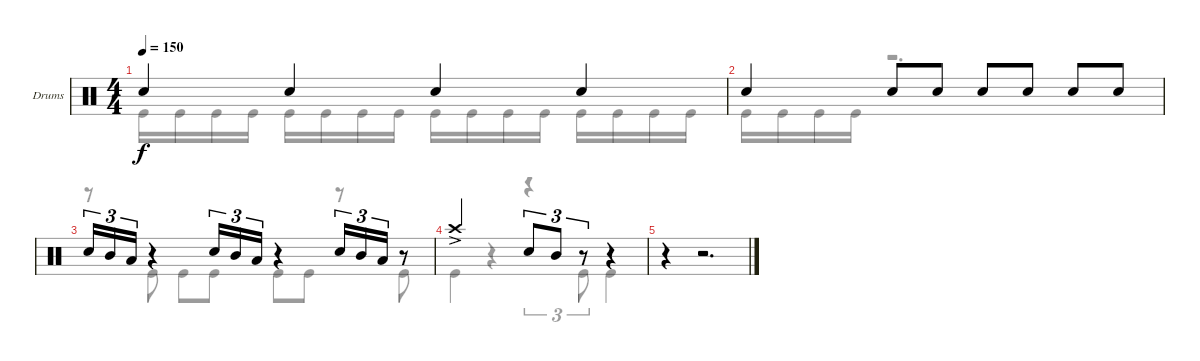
\bracketExtendMode groupsimilarinstruments
\firstSystemTrackNameOrientation horizontal
\otherSystemsTrackNameOrientation horizontal
\track ("Drumkit" "Drums") {instrument percussion}
\staff {score}
\articulation defaults
\voice
\ts (4 4)
\tempo 150
\clef neutral
\ks c "Snare (hit) 2".4{dy f} "Snare (hit) 2".4 "Snare (hit) 2".4 "Snare (hit) 2".4
|
"Snare (hit) 2".4 "Snare (hit) 2".8 "Snare (hit) 2".8 "Snare (hit) 2".8 "Snare (hit) 2".8 "Snare (hit) 2".8 "Snare (hit) 2".8 |
"Snare (hit) 2".16{tu (3 2)} "Mid Tom (hit)".16{tu (3 2)} "Low Tom (hit)".16{tu (3 2)} r.4 "Snare (hit) 2".16{tu (3 2)} "Mid Tom (hit)".16{tu (3 2)} "Low Tom (hit)".16{tu (3 2)} r.4 "Snare (hit) 2".16{tu (3 2)} "Mid Tom (hit)".16{tu (3 2)} "Low Tom (hit)".16{tu (3 2)} r.8 |
"Crash high (hit)"{ac}.2 "Snare (hit) 2".8{tu (3 2)} "Mid Tom (hit)".8{tu (3 2)} r.8{tu (3 2)} r.4 |
r.4 r.2{d}
\voice
\clef neutral
\ottava regular
\simile none
\ks c "Kick (hit)".16{dy f} "Kick (hit)".16 "Kick (hit)".16 "Kick (hit)".16 "Kick (hit)".16 "Kick (hit)".16 "Kick (hit)".16 "Kick (hit)".16 "Kick (hit)".16 "Kick (hit)".16 "Kick (hit)".16 "Kick (hit)".16 "Kick (hit)".16 "Kick (hit)".16 "Kick (hit)".16 "Kick (hit)".16
|
"Kick (hit)".16 "Kick (hit)".16 "Kick (hit)".16 "Kick (hit)".16 r.2{d} |
r.8 "Kick (hit)".8 "Kick (hit)".8 "Kick (hit)".8 "Kick (hit)".8 "Kick (hit)".8 r.8 "Kick (hit)".8 |
"Kick (hit)".4 r.4 r.4{tu (3 2)} "Kick (hit)".8{tu (3 2)} "Kick (hit)".4 |
